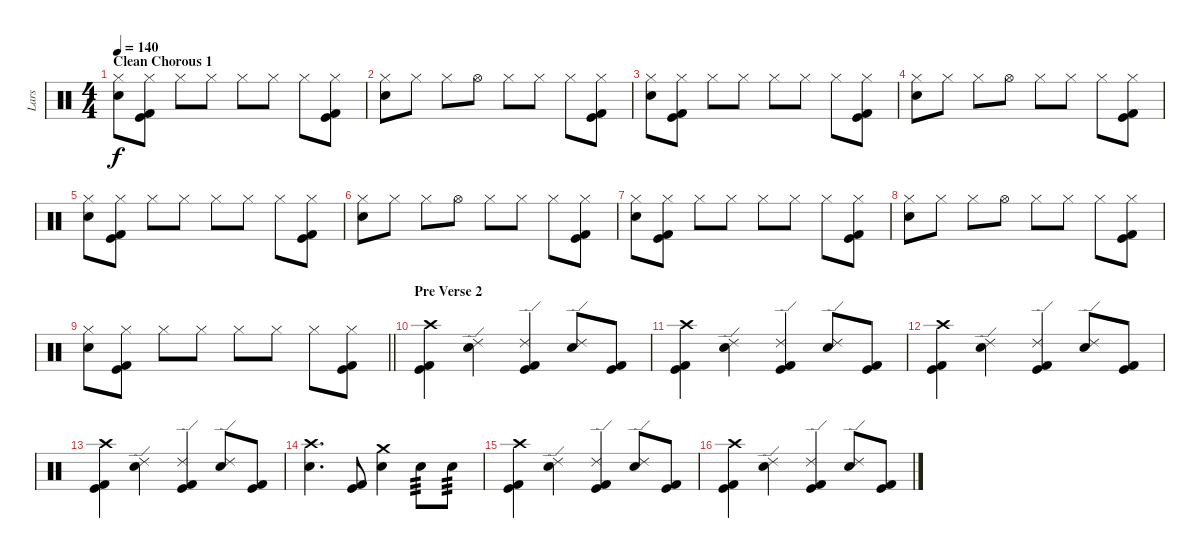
\track ("Lars" "Lars") {instrument percussion}
\staff {score}
\articulation defaults
\ts (4 4)
\section ("" "Clean Chorous 1")
\tempo 140
\clef neutral
\ks c
("Hi-Hat (closed)" "Electric Snare (hit)").8{dy f} ("Hi-Hat (closed)" "Kick (hit)" "Kick (hit) 2").8 "Hi-Hat (closed)".8 "Hi-Hat (closed)".8 "Hi-Hat (closed)".8 "Hi-Hat (closed)".8 "Hi-Hat (closed)".8 ("Hi-Hat (closed)" "Kick (hit)" "Kick (hit) 2").8 |
("Hi-Hat (closed)" "Electric Snare (hit)").8 "Hi-Hat (closed)".8 "Hi-Hat (closed)".8 "Hi-Hat (open)".8 "Hi-Hat (closed)".8 "Hi-Hat (closed)".8 "Hi-Hat (closed)".8 ("Hi-Hat (closed)" "Kick (hit)" "Kick (hit) 2").8 |
("Hi-Hat (closed)" "Electric Snare (hit)").8 ("Hi-Hat (closed)" "Kick (hit)" "Kick (hit) 2").8 "Hi-Hat (closed)".8 "Hi-Hat (closed)".8 "Hi-Hat (closed)".8 "Hi-Hat (closed)".8 "Hi-Hat (closed)".8 ("Hi-Hat (closed)" "Kick (hit)" "Kick (hit) 2").8 |
("Hi-Hat (closed)" "Electric Snare (hit)").8 "Hi-Hat (closed)".8 "Hi-Hat (closed)".8 "Hi-Hat (open)".8 "Hi-Hat (closed)".8 "Hi-Hat (closed)".8 "Hi-Hat (closed)".8 ("Hi-Hat (closed)" "Kick (hit)" "Kick (hit) 2").8 |
("Hi-Hat (closed)" "Electric Snare (hit)").8 ("Hi-Hat (closed)" "Kick (hit)" "Kick (hit) 2").8 "Hi-Hat (closed)".8 "Hi-Hat (closed)".8 "Hi-Hat (closed)".8 "Hi-Hat (closed)".8 "Hi-Hat (closed)".8 ("Hi-Hat (closed)" "Kick (hit)" "Kick (hit) 2").8 |
("Hi-Hat (closed)" "Electric Snare (hit)").8 "Hi-Hat (closed)".8 "Hi-Hat (closed)".8 "Hi-Hat (open)".8 "Hi-Hat (closed)".8 "Hi-Hat (closed)".8 "Hi-Hat (closed)".8 ("Hi-Hat (closed)" "Kick (hit)" "Kick (hit) 2").8 |
("Hi-Hat (closed)" "Electric Snare (hit)").8 ("Hi-Hat (closed)" "Kick (hit)" "Kick (hit) 2").8 "Hi-Hat (closed)".8 "Hi-Hat (closed)".8 "Hi-Hat (closed)".8 "Hi-Hat (closed)".8 "Hi-Hat (closed)".8 ("Hi-Hat (closed)" "Kick (hit)" "Kick (hit) 2").8 |
("Hi-Hat (closed)" "Electric Snare (hit)").8 "Hi-Hat (closed)".8 "Hi-Hat (closed)".8 "Hi-Hat (open)".8 "Hi-Hat (closed)".8 "Hi-Hat (closed)".8 "Hi-Hat (closed)".8 ("Hi-Hat (closed)" "Kick (hit)" "Kick (hit) 2").8 |
\barLineRight lightlight
("Hi-Hat (closed)" "Electric Snare (hit)").8 ("Hi-Hat (closed)" "Kick (hit)" "Kick (hit) 2").8 "Hi-Hat (closed)".8 "Hi-Hat (closed)".8 "Hi-Hat (closed)".8 "Hi-Hat (closed)".8 "Hi-Hat (closed)".8 ("Hi-Hat (closed)" "Kick (hit)" "Kick (hit) 2").8 |
\section ("" "Pre Verse 2")
("Crash high (hit)" "Kick (hit)" "Kick (hit) 2").4 ("Ride (edge) 2" "Electric Snare (hit)").4 ("Ride (edge) 2" "Kick (hit)" "Kick (hit) 2").4 ("Ride (edge) 2" "Electric Snare (hit)").8 ("Kick (hit)" "Kick (hit) 2").8 |
("Crash high (hit)" "Kick (hit)" "Kick (hit) 2").4 ("Ride (edge) 2" "Electric Snare (hit)").4 ("Ride (edge) 2" "Kick (hit)" "Kick (hit) 2").4 ("Ride (edge) 2" "Electric Snare (hit)").8 ("Kick (hit)" "Kick (hit) 2").8 |
("Crash high (hit)" "Kick (hit)" "Kick (hit) 2").4 ("Ride (edge) 2" "Electric Snare (hit)").4 ("Ride (edge) 2" "Kick (hit)" "Kick (hit) 2").4 ("Ride (edge) 2" "Electric Snare (hit)").8 ("Kick (hit)" "Kick (hit) 2").8 |
("Crash high (hit)" "Kick (hit)" "Kick (hit) 2").4 ("Ride (edge) 2" "Electric Snare (hit)").4 ("Ride (edge) 2" "Kick (hit)" "Kick (hit) 2").4 ("Ride (edge) 2" "Electric Snare (hit)").8 ("Kick (hit)" "Kick (hit) 2").8 |
("Crash high (hit)" "Electric Snare (hit)").4{d} ("Kick (hit)" "Kick (hit) 2").8 ("Crash medium (hit)" "Electric Snare (hit)").4 "Electric Snare (hit)".8{tp 3} "Electric Snare (hit)".8{tp 3} |
("Crash high (hit)" "Kick (hit)" "Kick (hit) 2").4 ("Ride (edge) 2" "Electric Snare (hit)").4 ("Ride (edge) 2" "Kick (hit)" "Kick (hit) 2").4 ("Ride (edge) 2" "Electric Snare (hit)").8 ("Kick (hit)" "Kick (hit) 2").8 |
("Crash high (hit)" "Kick (hit)" "Kick (hit) 2").4 ("Ride (edge) 2" "Electric Snare (hit)").4 ("Ride (edge) 2" "Kick (hit)" "Kick (hit) 2").4 ("Ride (edge) 2" "Electric Snare (hit)").8 ("Kick (hit)" "Kick (hit) 2").8
